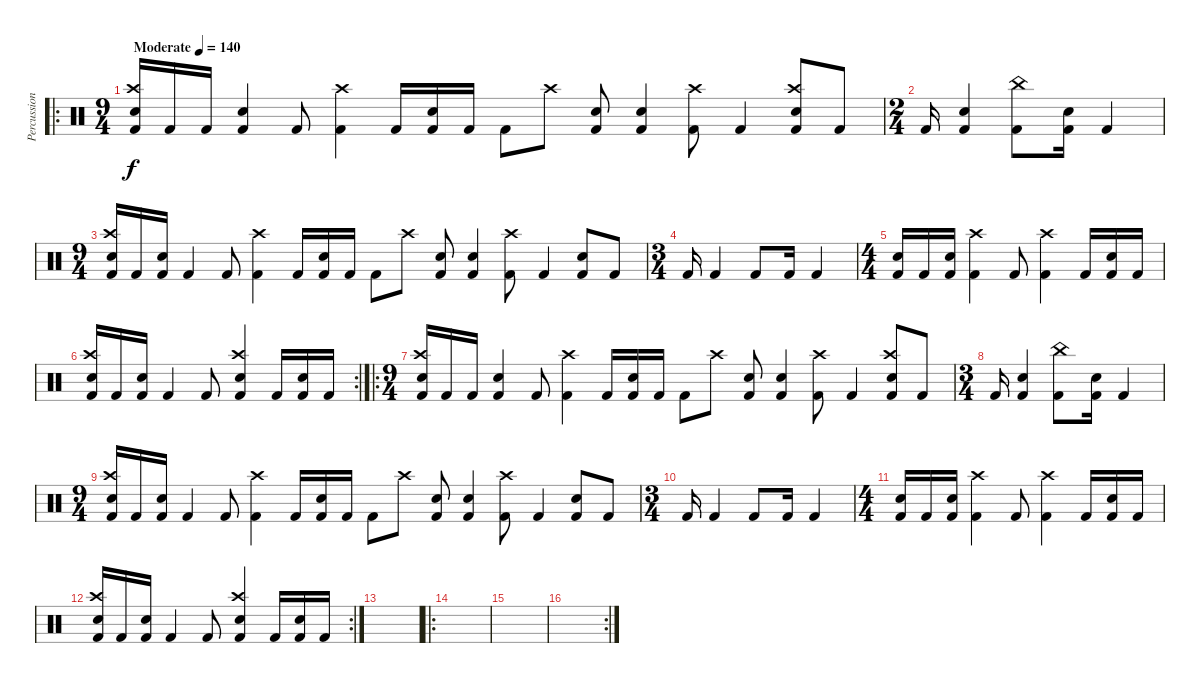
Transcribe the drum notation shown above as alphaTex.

\track ("Percussion" "Percussion") {instrument percussion}
\staff {score}
\articulation defaults
\ro
\ts (9 4)
\tempo (140 "Moderate")
\clef neutral
\ks c
("Electric Snare (hit)" "Crash high (hit)" "Kick (hit) 2").16{dy f} "Kick (hit) 2".16 "Kick (hit) 2".16 ("Electric Snare (hit)" "Kick (hit) 2").4 "Kick (hit) 2".8 ("Crash high (hit)" "Kick (hit) 2").4 "Kick (hit) 2".16 ("Electric Snare (hit)" "Kick (hit) 2").16 "Kick (hit) 2".16 "Kick (hit) 2".8 "Crash high (hit)".8 ("Electric Snare (hit)" "Kick (hit) 2").8 ("Electric Snare (hit)" "Kick (hit) 2").4 ("Crash high (hit)" "Kick (hit) 2").8 "Kick (hit) 2".4 ("Electric Snare (hit)" "Crash high (hit)" "Kick (hit) 2").8 "Kick (hit) 2".8 |
\ts (2 4)
"Kick (hit) 2".16 ("Electric Snare (hit)" "Kick (hit) 2").4 ("China (hit)" "Kick (hit) 2").8 ("Electric Snare (hit)" "Kick (hit) 2").16 "Kick (hit) 2".4 |
\ts (9 4)
("Electric Snare (hit)" "Crash high (hit)" "Kick (hit) 2").16 "Kick (hit) 2".16 ("Electric Snare (hit)" "Kick (hit) 2").16 "Kick (hit) 2".4 "Kick (hit) 2".8 ("Crash high (hit)" "Kick (hit) 2").4 "Kick (hit) 2".16 ("Electric Snare (hit)" "Kick (hit) 2").16 "Kick (hit) 2".16 "Kick (hit) 2".8 "Crash high (hit)".8 ("Electric Snare (hit)" "Kick (hit) 2").8 ("Electric Snare (hit)" "Kick (hit) 2").4 ("Crash high (hit)" "Kick (hit) 2").8 "Kick (hit) 2".4 ("Electric Snare (hit)" "Kick (hit) 2").8 "Kick (hit) 2".8 |
\ts (3 4)
"Kick (hit) 2".16 "Kick (hit) 2".4 "Kick (hit) 2".8 "Kick (hit) 2".16 "Kick (hit) 2".4 |
\ts (4 4)
("Electric Snare (hit)" "Kick (hit) 2").16 "Kick (hit) 2".16 ("Electric Snare (hit)" "Kick (hit) 2").16 ("Crash high (hit)" "Kick (hit) 2").4 "Kick (hit) 2".8 ("Crash high (hit)" "Kick (hit) 2").4 "Kick (hit) 2".16 ("Electric Snare (hit)" "Kick (hit) 2").16 "Kick (hit) 2".16 |
\rc 2
("Electric Snare (hit)" "Crash high (hit)" "Kick (hit) 2").16 "Kick (hit) 2".16 ("Electric Snare (hit)" "Kick (hit) 2").16 "Kick (hit) 2".4 "Kick (hit) 2".8 ("Electric Snare (hit)" "Crash high (hit)" "Kick (hit) 2").4 "Kick (hit) 2".16 ("Electric Snare (hit)" "Kick (hit) 2").16 "Kick (hit) 2".16 |
\ro
\ts (9 4)
("Electric Snare (hit)" "Crash high (hit)" "Kick (hit) 2").16 "Kick (hit) 2".16 "Kick (hit) 2".16 ("Electric Snare (hit)" "Kick (hit) 2").4 "Kick (hit) 2".8 ("Crash high (hit)" "Kick (hit) 2").4 "Kick (hit) 2".16 ("Electric Snare (hit)" "Kick (hit) 2").16 "Kick (hit) 2".16 "Kick (hit) 2".8 "Crash high (hit)".8 ("Electric Snare (hit)" "Kick (hit) 2").8 ("Electric Snare (hit)" "Kick (hit) 2").4 ("Crash high (hit)" "Kick (hit) 2").8 "Kick (hit) 2".4 ("Electric Snare (hit)" "Crash high (hit)" "Kick (hit) 2").8 "Kick (hit) 2".8 |
\ts (3 4)
"Kick (hit) 2".16 ("Electric Snare (hit)" "Kick (hit) 2").4 ("China (hit)" "Kick (hit) 2").8 ("Electric Snare (hit)" "Kick (hit) 2").16 "Kick (hit) 2".4 |
\ts (9 4)
("Electric Snare (hit)" "Crash high (hit)" "Kick (hit) 2").16 "Kick (hit) 2".16 ("Electric Snare (hit)" "Kick (hit) 2").16 "Kick (hit) 2".4 "Kick (hit) 2".8 ("Crash high (hit)" "Kick (hit) 2").4 "Kick (hit) 2".16 ("Electric Snare (hit)" "Kick (hit) 2").16 "Kick (hit) 2".16 "Kick (hit) 2".8 "Crash high (hit)".8 ("Electric Snare (hit)" "Kick (hit) 2").8 ("Electric Snare (hit)" "Kick (hit) 2").4 ("Crash high (hit)" "Kick (hit) 2").8 "Kick (hit) 2".4 ("Electric Snare (hit)" "Kick (hit) 2").8 "Kick (hit) 2".8 |
\ts (3 4)
"Kick (hit) 2".16 "Kick (hit) 2".4 "Kick (hit) 2".8 "Kick (hit) 2".16 "Kick (hit) 2".4 |
\ts (4 4)
("Electric Snare (hit)" "Kick (hit) 2").16 "Kick (hit) 2".16 ("Electric Snare (hit)" "Kick (hit) 2").16 ("Crash high (hit)" "Kick (hit) 2").4 "Kick (hit) 2".8 ("Crash high (hit)" "Kick (hit) 2").4 "Kick (hit) 2".16 ("Electric Snare (hit)" "Kick (hit) 2").16 "Kick (hit) 2".16 |
\rc 2
("Electric Snare (hit)" "Crash high (hit)" "Kick (hit) 2").16 "Kick (hit) 2".16 ("Electric Snare (hit)" "Kick (hit) 2").16 "Kick (hit) 2".4 "Kick (hit) 2".8 ("Electric Snare (hit)" "Crash high (hit)" "Kick (hit) 2").4 "Kick (hit) 2".16 ("Electric Snare (hit)" "Kick (hit) 2").16 "Kick (hit) 2".16 |
|
\ro
|
|
\rc 2
